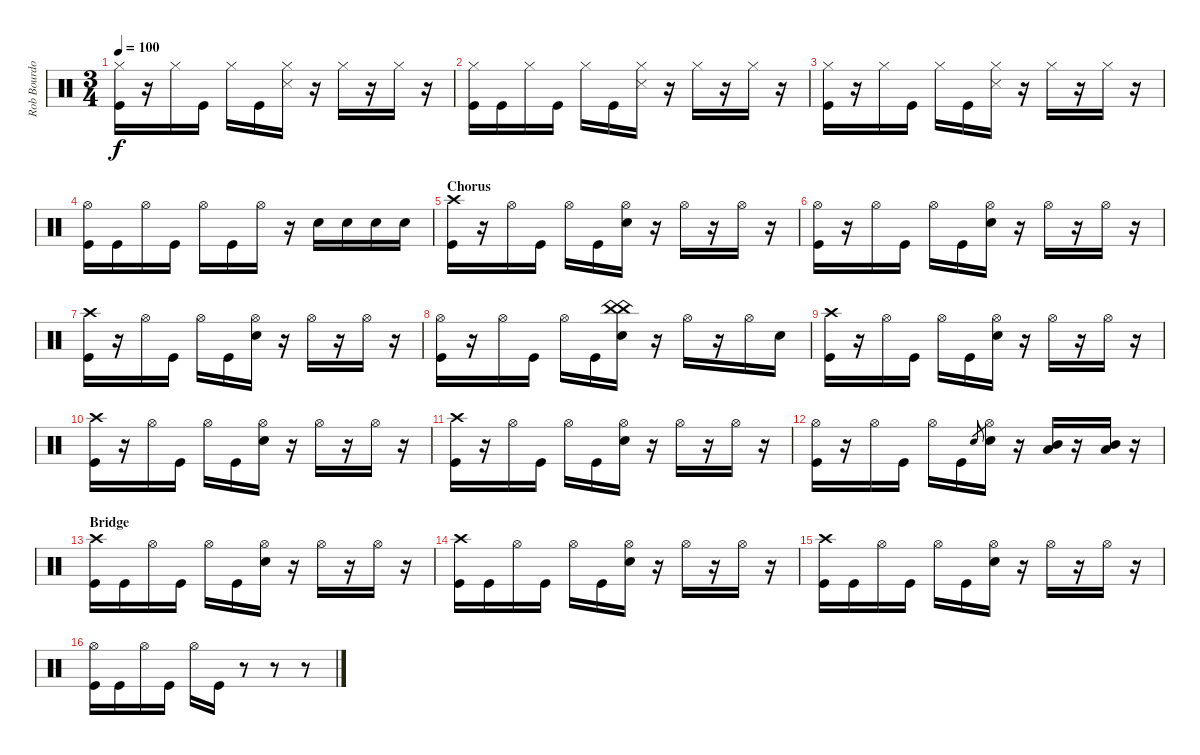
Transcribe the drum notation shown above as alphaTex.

\track ("Rob Bourdon" "Rob Bourdo") {instrument percussion}
\staff {score}
\articulation defaults
\ts (3 4)
\tempo 100
\clef neutral
\ks c
("Hi-Hat (closed)" "Kick (hit)").16{dy f} r.16 "Hi-Hat (closed)".16 "Kick (hit)".16 "Hi-Hat (closed)".16 "Kick (hit)".16 ("Hi-Hat (closed)" "Snare (side stick) 3").16 r.16 "Hi-Hat (closed)".16 r.16 "Hi-Hat (closed)".16 r.16 |
("Hi-Hat (closed)" "Kick (hit)").16 "Kick (hit)".16 "Hi-Hat (closed)".16 "Kick (hit)".16 "Hi-Hat (closed)".16 "Kick (hit)".16 ("Hi-Hat (closed)" "Snare (side stick) 3").16 r.16 "Hi-Hat (closed)".16 r.16 "Hi-Hat (closed)".16 r.16 |
("Hi-Hat (closed)" "Kick (hit)").16 r.16 "Hi-Hat (closed)".16 "Kick (hit)".16 "Hi-Hat (closed)".16 "Kick (hit)".16 ("Hi-Hat (closed)" "Snare (side stick) 3").16 r.16 "Hi-Hat (closed)".16 r.16 "Hi-Hat (closed)".16 r.16 |
("Hi-Hat (open)" "Kick (hit)").16 "Kick (hit)".16 "Hi-Hat (open)".16 "Kick (hit)".16 "Hi-Hat (open)".16 "Kick (hit)".16 "Hi-Hat (open)".16 r.16 "Snare (hit) 2".16 "Snare (hit) 2".16 "Snare (hit) 2".16 "Snare (hit) 2".16 |
\section ("" "Chorus")
("Crash high (hit)" "Kick (hit)").16 r.16 "Hi-Hat (open)".16 "Kick (hit)".16 "Hi-Hat (open)".16 "Kick (hit)".16 ("Hi-Hat (open)" "Snare (hit) 2").16 r.16 "Hi-Hat (open)".16 r.16 "Hi-Hat (open)".16 r.16 |
("Hi-Hat (open)" "Kick (hit)").16 r.16 "Hi-Hat (open)".16 "Kick (hit)".16 "Hi-Hat (open)".16 "Kick (hit)".16 ("Hi-Hat (open)" "Snare (hit) 2").16 r.16 "Hi-Hat (open)".16 r.16 "Hi-Hat (open)".16 r.16 |
("Crash high (hit)" "Kick (hit)").16 r.16 "Hi-Hat (open)".16 "Kick (hit)".16 "Hi-Hat (open)".16 "Kick (hit)".16 ("Hi-Hat (open)" "Snare (hit) 2").16 r.16 "Hi-Hat (open)".16 r.16 "Hi-Hat (open)".16 r.16 |
("Hi-Hat (open)" "Kick (hit)").16 r.16 "Hi-Hat (open)".16 "Kick (hit)".16 "Hi-Hat (open)".16 "Kick (hit)".16 ("China (hit)" "China (hit)" "Snare (hit) 2").16 r.16 "Hi-Hat (open)".16 r.16 "Hi-Hat (open)".16 "Snare (hit) 2".16 |
("Crash high (hit)" "Kick (hit)").16 r.16 "Hi-Hat (open)".16 "Kick (hit)".16 "Hi-Hat (open)".16 "Kick (hit)".16 ("Hi-Hat (open)" "Snare (hit) 2").16 r.16 "Hi-Hat (open)".16 r.16 "Hi-Hat (open)".16 r.16 |
("Crash high (hit)" "Kick (hit)").16 r.16 "Hi-Hat (open)".16 "Kick (hit)".16 "Hi-Hat (open)".16 "Kick (hit)".16 ("Hi-Hat (open)" "Snare (hit) 2").16 r.16 "Hi-Hat (open)".16 r.16 "Hi-Hat (open)".16 r.16 |
("Crash high (hit)" "Kick (hit)").16 r.16 "Hi-Hat (open)".16 "Kick (hit)".16 "Hi-Hat (open)".16 "Kick (hit)".16 ("Hi-Hat (open)" "Snare (hit) 2").16 r.16 "Hi-Hat (open)".16 r.16 "Hi-Hat (open)".16 r.16 |
("Hi-Hat (open)" "Kick (hit)").16 r.16 "Hi-Hat (open)".16 "Kick (hit)".16 "Hi-Hat (open)".16 "Kick (hit)".16 "Snare (hit) 2".8{gr} ("Hi-Hat (open)" "Snare (hit) 2").16 r.16 ("Mid Tom (hit)" "Low Tom (hit)").16 r.16 ("Mid Tom (hit)" "Low Tom (hit)").16 r.16 |
\section ("" "Bridge")
("Crash high (hit)" "Kick (hit)").16 "Kick (hit)".16 "Hi-Hat (open)".16 "Kick (hit)".16 "Hi-Hat (open)".16 "Kick (hit)".16 ("Hi-Hat (open)" "Snare (hit) 2").16 r.16 "Hi-Hat (open)".16 r.16 "Hi-Hat (open)".16 r.16 |
("Crash high (hit)" "Kick (hit)").16 "Kick (hit)".16 "Hi-Hat (open)".16 "Kick (hit)".16 "Hi-Hat (open)".16 "Kick (hit)".16 ("Hi-Hat (open)" "Snare (hit) 2").16 r.16 "Hi-Hat (open)".16 r.16 "Hi-Hat (open)".16 r.16 |
("Crash high (hit)" "Kick (hit)").16 "Kick (hit)".16 "Hi-Hat (open)".16 "Kick (hit)".16 "Hi-Hat (open)".16 "Kick (hit)".16 ("Hi-Hat (open)" "Snare (hit) 2").16 r.16 "Hi-Hat (open)".16 r.16 "Hi-Hat (open)".16 r.16 |
("Hi-Hat (open)" "Kick (hit)").16 "Kick (hit)".16 "Hi-Hat (open)".16 "Kick (hit)".16 "Hi-Hat (open)".16 "Kick (hit)".16 r.8 r.8 r.8
